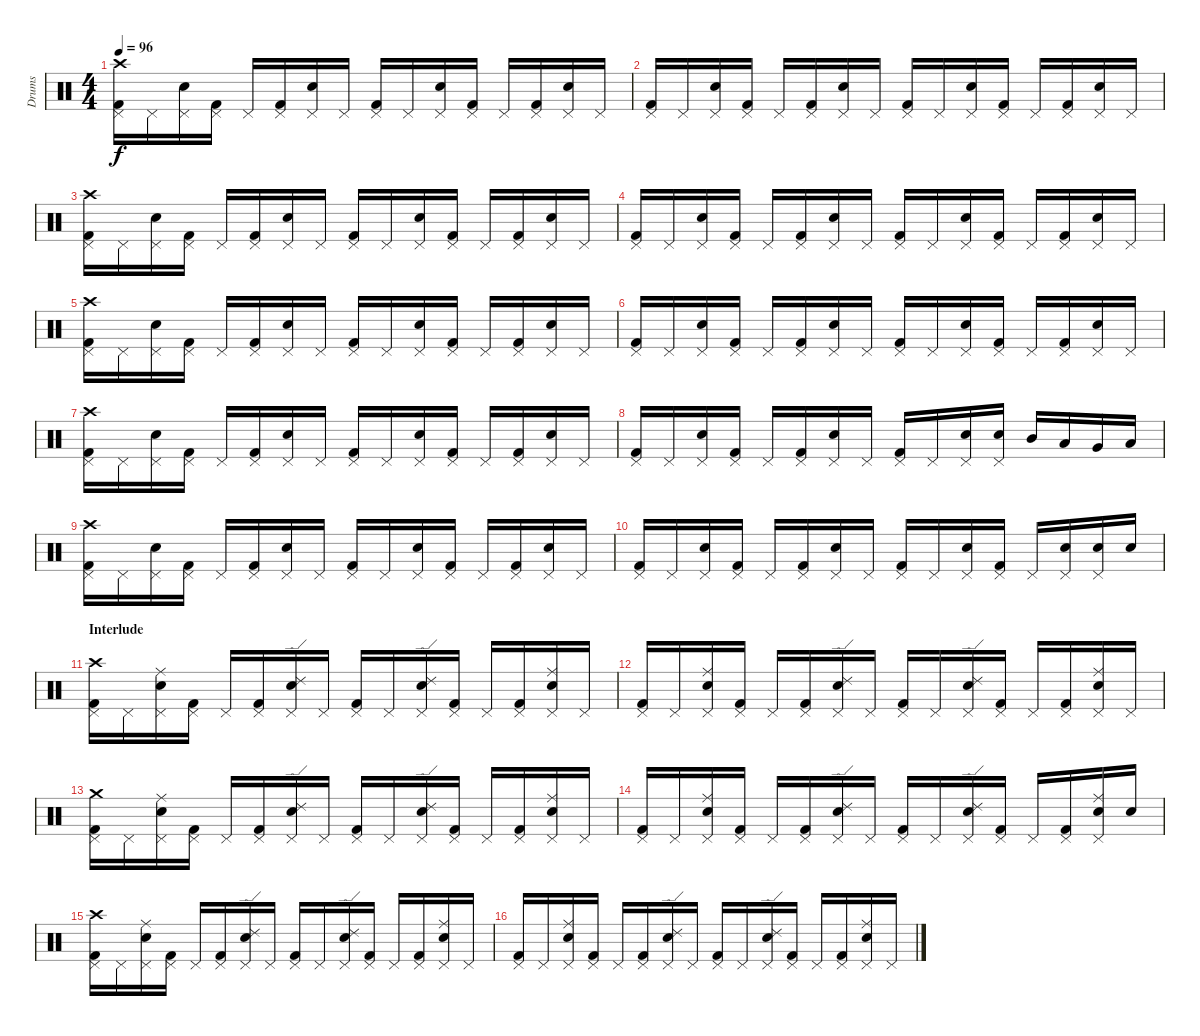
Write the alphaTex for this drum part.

\track ("Drums" "Drums") {instrument percussion}
\staff {score}
\articulation defaults
\ts (4 4)
\tempo 96
\clef neutral
\ks c
("Kick (hit) 2" "Pedal Hi-Hat (hit)" "Crash high (hit)").16{dy f} "Pedal Hi-Hat (hit)".16 ("Snare (hit) 2" "Pedal Hi-Hat (hit)").16 ("Kick (hit) 2" "Pedal Hi-Hat (hit)").16 "Pedal Hi-Hat (hit)".16 ("Kick (hit) 2" "Pedal Hi-Hat (hit)").16 ("Snare (hit) 2" "Pedal Hi-Hat (hit)").16 "Pedal Hi-Hat (hit)".16 ("Kick (hit) 2" "Pedal Hi-Hat (hit)").16 "Pedal Hi-Hat (hit)".16 ("Snare (hit) 2" "Pedal Hi-Hat (hit)").16 ("Kick (hit) 2" "Pedal Hi-Hat (hit)").16 "Pedal Hi-Hat (hit)".16 ("Kick (hit) 2" "Pedal Hi-Hat (hit)").16 ("Snare (hit) 2" "Pedal Hi-Hat (hit)").16 "Pedal Hi-Hat (hit)".16 |
("Kick (hit) 2" "Pedal Hi-Hat (hit)").16 "Pedal Hi-Hat (hit)".16 ("Snare (hit) 2" "Pedal Hi-Hat (hit)").16 ("Kick (hit) 2" "Pedal Hi-Hat (hit)").16 "Pedal Hi-Hat (hit)".16 ("Kick (hit) 2" "Pedal Hi-Hat (hit)").16 ("Snare (hit) 2" "Pedal Hi-Hat (hit)").16 "Pedal Hi-Hat (hit)".16 ("Kick (hit) 2" "Pedal Hi-Hat (hit)").16 "Pedal Hi-Hat (hit)".16 ("Snare (hit) 2" "Pedal Hi-Hat (hit)").16 ("Kick (hit) 2" "Pedal Hi-Hat (hit)").16 "Pedal Hi-Hat (hit)".16 ("Kick (hit) 2" "Pedal Hi-Hat (hit)").16 ("Snare (hit) 2" "Pedal Hi-Hat (hit)").16 "Pedal Hi-Hat (hit)".16 |
("Kick (hit) 2" "Pedal Hi-Hat (hit)" "Crash high (hit)").16 "Pedal Hi-Hat (hit)".16 ("Snare (hit) 2" "Pedal Hi-Hat (hit)").16 ("Kick (hit) 2" "Pedal Hi-Hat (hit)").16 "Pedal Hi-Hat (hit)".16 ("Kick (hit) 2" "Pedal Hi-Hat (hit)").16 ("Snare (hit) 2" "Pedal Hi-Hat (hit)").16 "Pedal Hi-Hat (hit)".16 ("Kick (hit) 2" "Pedal Hi-Hat (hit)").16 "Pedal Hi-Hat (hit)".16 ("Snare (hit) 2" "Pedal Hi-Hat (hit)").16 ("Kick (hit) 2" "Pedal Hi-Hat (hit)").16 "Pedal Hi-Hat (hit)".16 ("Kick (hit) 2" "Pedal Hi-Hat (hit)").16 ("Snare (hit) 2" "Pedal Hi-Hat (hit)").16 "Pedal Hi-Hat (hit)".16 |
("Kick (hit) 2" "Pedal Hi-Hat (hit)").16 "Pedal Hi-Hat (hit)".16 ("Snare (hit) 2" "Pedal Hi-Hat (hit)").16 ("Kick (hit) 2" "Pedal Hi-Hat (hit)").16 "Pedal Hi-Hat (hit)".16 ("Kick (hit) 2" "Pedal Hi-Hat (hit)").16 ("Snare (hit) 2" "Pedal Hi-Hat (hit)").16 "Pedal Hi-Hat (hit)".16 ("Kick (hit) 2" "Pedal Hi-Hat (hit)").16 "Pedal Hi-Hat (hit)".16 ("Snare (hit) 2" "Pedal Hi-Hat (hit)").16 ("Kick (hit) 2" "Pedal Hi-Hat (hit)").16 "Pedal Hi-Hat (hit)".16 ("Kick (hit) 2" "Pedal Hi-Hat (hit)").16 ("Snare (hit) 2" "Pedal Hi-Hat (hit)").16 "Pedal Hi-Hat (hit)".16 |
("Kick (hit) 2" "Pedal Hi-Hat (hit)" "Crash high (hit)").16 "Pedal Hi-Hat (hit)".16 ("Snare (hit) 2" "Pedal Hi-Hat (hit)").16 ("Kick (hit) 2" "Pedal Hi-Hat (hit)").16 "Pedal Hi-Hat (hit)".16 ("Kick (hit) 2" "Pedal Hi-Hat (hit)").16 ("Snare (hit) 2" "Pedal Hi-Hat (hit)").16 "Pedal Hi-Hat (hit)".16 ("Kick (hit) 2" "Pedal Hi-Hat (hit)").16 "Pedal Hi-Hat (hit)".16 ("Snare (hit) 2" "Pedal Hi-Hat (hit)").16 ("Kick (hit) 2" "Pedal Hi-Hat (hit)").16 "Pedal Hi-Hat (hit)".16 ("Kick (hit) 2" "Pedal Hi-Hat (hit)").16 ("Snare (hit) 2" "Pedal Hi-Hat (hit)").16 "Pedal Hi-Hat (hit)".16 |
("Kick (hit) 2" "Pedal Hi-Hat (hit)").16 "Pedal Hi-Hat (hit)".16 ("Snare (hit) 2" "Pedal Hi-Hat (hit)").16 ("Kick (hit) 2" "Pedal Hi-Hat (hit)").16 "Pedal Hi-Hat (hit)".16 ("Kick (hit) 2" "Pedal Hi-Hat (hit)").16 ("Snare (hit) 2" "Pedal Hi-Hat (hit)").16 "Pedal Hi-Hat (hit)".16 ("Kick (hit) 2" "Pedal Hi-Hat (hit)").16 "Pedal Hi-Hat (hit)".16 ("Snare (hit) 2" "Pedal Hi-Hat (hit)").16 ("Kick (hit) 2" "Pedal Hi-Hat (hit)").16 "Pedal Hi-Hat (hit)".16 ("Kick (hit) 2" "Pedal Hi-Hat (hit)").16 ("Snare (hit) 2" "Pedal Hi-Hat (hit)").16 "Pedal Hi-Hat (hit)".16 |
("Kick (hit) 2" "Pedal Hi-Hat (hit)" "Crash high (hit)").16 "Pedal Hi-Hat (hit)".16 ("Snare (hit) 2" "Pedal Hi-Hat (hit)").16 ("Kick (hit) 2" "Pedal Hi-Hat (hit)").16 "Pedal Hi-Hat (hit)".16 ("Kick (hit) 2" "Pedal Hi-Hat (hit)").16 ("Snare (hit) 2" "Pedal Hi-Hat (hit)").16 "Pedal Hi-Hat (hit)".16 ("Kick (hit) 2" "Pedal Hi-Hat (hit)").16 "Pedal Hi-Hat (hit)".16 ("Snare (hit) 2" "Pedal Hi-Hat (hit)").16 ("Kick (hit) 2" "Pedal Hi-Hat (hit)").16 "Pedal Hi-Hat (hit)".16 ("Kick (hit) 2" "Pedal Hi-Hat (hit)").16 ("Snare (hit) 2" "Pedal Hi-Hat (hit)").16 "Pedal Hi-Hat (hit)".16 |
("Kick (hit) 2" "Pedal Hi-Hat (hit)").16 "Pedal Hi-Hat (hit)".16 ("Snare (hit) 2" "Pedal Hi-Hat (hit)").16 ("Kick (hit) 2" "Pedal Hi-Hat (hit)").16 "Pedal Hi-Hat (hit)".16 ("Kick (hit) 2" "Pedal Hi-Hat (hit)").16 ("Snare (hit) 2" "Pedal Hi-Hat (hit)").16 "Pedal Hi-Hat (hit)".16 ("Kick (hit) 2" "Pedal Hi-Hat (hit)").16 "Pedal Hi-Hat (hit)".16 ("Snare (hit) 2" "Pedal Hi-Hat (hit)").16 ("Snare (hit) 2" "Pedal Hi-Hat (hit)").16 "Mid Tom (hit)".16 "Low Tom (hit)".16 "Very Low Tom (hit)".16 "Low Floor Tom (hit)".16 |
("Kick (hit) 2" "Pedal Hi-Hat (hit)" "Crash high (hit)").16 "Pedal Hi-Hat (hit)".16 ("Snare (hit) 2" "Pedal Hi-Hat (hit)").16 ("Kick (hit) 2" "Pedal Hi-Hat (hit)").16 "Pedal Hi-Hat (hit)".16 ("Kick (hit) 2" "Pedal Hi-Hat (hit)").16 ("Snare (hit) 2" "Pedal Hi-Hat (hit)").16 "Pedal Hi-Hat (hit)".16 ("Kick (hit) 2" "Pedal Hi-Hat (hit)").16 "Pedal Hi-Hat (hit)".16 ("Snare (hit) 2" "Pedal Hi-Hat (hit)").16 ("Kick (hit) 2" "Pedal Hi-Hat (hit)").16 "Pedal Hi-Hat (hit)".16 ("Kick (hit) 2" "Pedal Hi-Hat (hit)").16 ("Snare (hit) 2" "Pedal Hi-Hat (hit)").16 "Pedal Hi-Hat (hit)".16 |
("Kick (hit) 2" "Pedal Hi-Hat (hit)").16 "Pedal Hi-Hat (hit)".16 ("Snare (hit) 2" "Pedal Hi-Hat (hit)").16 ("Kick (hit) 2" "Pedal Hi-Hat (hit)").16 "Pedal Hi-Hat (hit)".16 ("Kick (hit) 2" "Pedal Hi-Hat (hit)").16 ("Snare (hit) 2" "Pedal Hi-Hat (hit)").16 "Pedal Hi-Hat (hit)".16 ("Kick (hit) 2" "Pedal Hi-Hat (hit)").16 "Pedal Hi-Hat (hit)".16 ("Snare (hit) 2" "Pedal Hi-Hat (hit)").16 ("Kick (hit) 2" "Pedal Hi-Hat (hit)").16 "Pedal Hi-Hat (hit)".16 ("Snare (hit) 2" "Pedal Hi-Hat (hit)").16 ("Snare (hit) 2" "Pedal Hi-Hat (hit)").16 "Snare (hit) 2".16 |
\section ("" "Interlude")
("Kick (hit) 2" "Pedal Hi-Hat (hit)" "Crash high (hit)").16 "Pedal Hi-Hat (hit)".16 ("Snare (hit) 2" "Pedal Hi-Hat (hit)" "Ride (middle)").16 ("Kick (hit) 2" "Pedal Hi-Hat (hit)").16 "Pedal Hi-Hat (hit)".16 ("Kick (hit) 2" "Pedal Hi-Hat (hit)").16 ("Snare (hit) 2" "Pedal Hi-Hat (hit)" "Ride (edge) 2").16 "Pedal Hi-Hat (hit)".16 ("Kick (hit) 2" "Pedal Hi-Hat (hit)").16 "Pedal Hi-Hat (hit)".16 ("Snare (hit) 2" "Pedal Hi-Hat (hit)" "Ride (edge) 2").16 ("Kick (hit) 2" "Pedal Hi-Hat (hit)").16 "Pedal Hi-Hat (hit)".16 ("Kick (hit) 2" "Pedal Hi-Hat (hit)").16 ("Snare (hit) 2" "Pedal Hi-Hat (hit)" "Ride (middle)").16 "Pedal Hi-Hat (hit)".16 |
("Kick (hit) 2" "Pedal Hi-Hat (hit)").16 "Pedal Hi-Hat (hit)".16 ("Snare (hit) 2" "Pedal Hi-Hat (hit)" "Ride (middle)").16 ("Kick (hit) 2" "Pedal Hi-Hat (hit)").16 "Pedal Hi-Hat (hit)".16 ("Kick (hit) 2" "Pedal Hi-Hat (hit)").16 ("Snare (hit) 2" "Pedal Hi-Hat (hit)" "Ride (edge) 2").16 "Pedal Hi-Hat (hit)".16 ("Kick (hit) 2" "Pedal Hi-Hat (hit)").16 "Pedal Hi-Hat (hit)".16 ("Snare (hit) 2" "Pedal Hi-Hat (hit)" "Ride (edge) 2").16 ("Kick (hit) 2" "Pedal Hi-Hat (hit)").16 "Pedal Hi-Hat (hit)".16 ("Kick (hit) 2" "Pedal Hi-Hat (hit)").16 ("Snare (hit) 2" "Pedal Hi-Hat (hit)" "Ride (middle)").16 "Pedal Hi-Hat (hit)".16 |
("Kick (hit) 2" "Pedal Hi-Hat (hit)" "Crash medium (hit)").16 "Pedal Hi-Hat (hit)".16 ("Snare (hit) 2" "Pedal Hi-Hat (hit)" "Ride (middle)").16 ("Kick (hit) 2" "Pedal Hi-Hat (hit)").16 "Pedal Hi-Hat (hit)".16 ("Kick (hit) 2" "Pedal Hi-Hat (hit)").16 ("Snare (hit) 2" "Pedal Hi-Hat (hit)" "Ride (edge) 2").16 "Pedal Hi-Hat (hit)".16 ("Kick (hit) 2" "Pedal Hi-Hat (hit)").16 "Pedal Hi-Hat (hit)".16 ("Snare (hit) 2" "Pedal Hi-Hat (hit)" "Ride (edge) 2").16 ("Kick (hit) 2" "Pedal Hi-Hat (hit)").16 "Pedal Hi-Hat (hit)".16 ("Kick (hit) 2" "Pedal Hi-Hat (hit)").16 ("Snare (hit) 2" "Pedal Hi-Hat (hit)" "Ride (middle)").16 "Pedal Hi-Hat (hit)".16 |
("Kick (hit) 2" "Pedal Hi-Hat (hit)").16 "Pedal Hi-Hat (hit)".16 ("Snare (hit) 2" "Pedal Hi-Hat (hit)" "Ride (middle)").16 ("Kick (hit) 2" "Pedal Hi-Hat (hit)").16 "Pedal Hi-Hat (hit)".16 ("Kick (hit) 2" "Pedal Hi-Hat (hit)").16 ("Snare (hit) 2" "Pedal Hi-Hat (hit)" "Ride (edge) 2").16 "Pedal Hi-Hat (hit)".16 ("Kick (hit) 2" "Pedal Hi-Hat (hit)").16 "Pedal Hi-Hat (hit)".16 ("Snare (hit) 2" "Pedal Hi-Hat (hit)" "Ride (edge) 2").16 ("Kick (hit) 2" "Pedal Hi-Hat (hit)").16 "Pedal Hi-Hat (hit)".16 ("Kick (hit) 2" "Pedal Hi-Hat (hit)").16 ("Snare (hit) 2" "Pedal Hi-Hat (hit)" "Ride (middle)").16 "Snare (hit) 2".16 |
("Kick (hit) 2" "Pedal Hi-Hat (hit)" "Crash high (hit)").16 "Pedal Hi-Hat (hit)".16 ("Snare (hit) 2" "Pedal Hi-Hat (hit)" "Ride (middle)").16 ("Kick (hit) 2" "Pedal Hi-Hat (hit)").16 "Pedal Hi-Hat (hit)".16 ("Kick (hit) 2" "Pedal Hi-Hat (hit)").16 ("Snare (hit) 2" "Pedal Hi-Hat (hit)" "Ride (edge) 2").16 "Pedal Hi-Hat (hit)".16 ("Kick (hit) 2" "Pedal Hi-Hat (hit)").16 "Pedal Hi-Hat (hit)".16 ("Snare (hit) 2" "Pedal Hi-Hat (hit)" "Ride (edge) 2").16 ("Kick (hit) 2" "Pedal Hi-Hat (hit)").16 "Pedal Hi-Hat (hit)".16 ("Kick (hit) 2" "Pedal Hi-Hat (hit)").16 ("Snare (hit) 2" "Pedal Hi-Hat (hit)" "Ride (middle)").16 "Pedal Hi-Hat (hit)".16 |
("Kick (hit) 2" "Pedal Hi-Hat (hit)").16 "Pedal Hi-Hat (hit)".16 ("Snare (hit) 2" "Pedal Hi-Hat (hit)" "Ride (middle)").16 ("Kick (hit) 2" "Pedal Hi-Hat (hit)").16 "Pedal Hi-Hat (hit)".16 ("Kick (hit) 2" "Pedal Hi-Hat (hit)").16 ("Snare (hit) 2" "Pedal Hi-Hat (hit)" "Ride (edge) 2").16 "Pedal Hi-Hat (hit)".16 ("Kick (hit) 2" "Pedal Hi-Hat (hit)").16 "Pedal Hi-Hat (hit)".16 ("Snare (hit) 2" "Pedal Hi-Hat (hit)" "Ride (edge) 2").16 ("Kick (hit) 2" "Pedal Hi-Hat (hit)").16 "Pedal Hi-Hat (hit)".16 ("Kick (hit) 2" "Pedal Hi-Hat (hit)").16 ("Snare (hit) 2" "Pedal Hi-Hat (hit)" "Ride (middle)").16 "Pedal Hi-Hat (hit)".16
